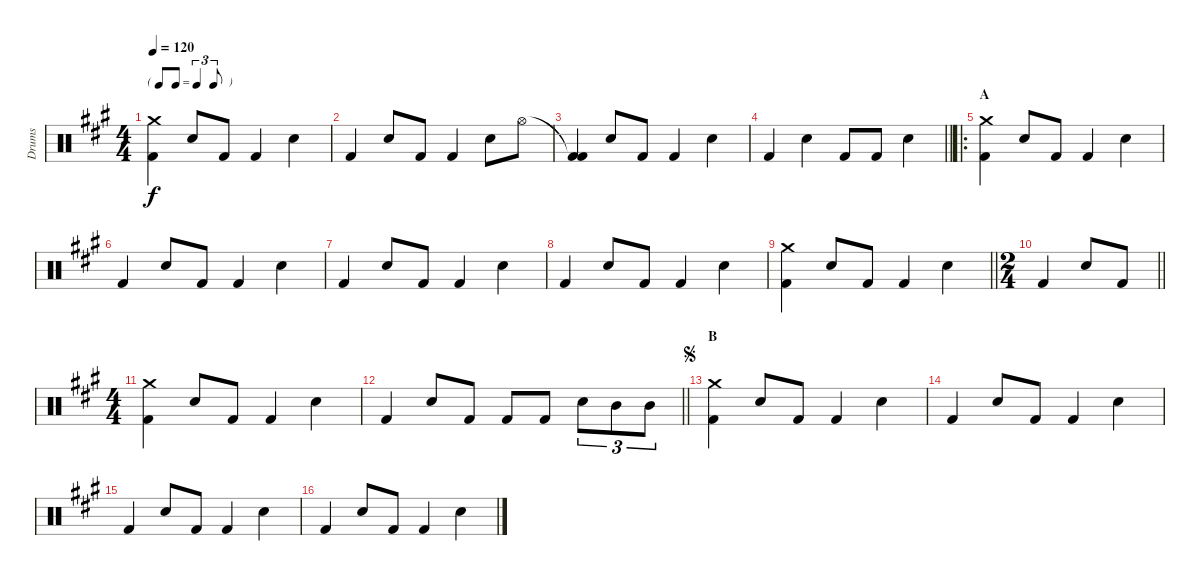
\track ("Drums" "Drums") {instrument percussion}
\staff {score}
\articulation defaults
\ts (4 4)
\tf triplet8th
\tempo 120
\clef neutral
\ks a
("Crash medium (hit)" "Kick (hit) 2").4{dy f} "Snare (hit) 2".8 "Kick (hit) 2".8 "Kick (hit) 2".4 "Snare (hit) 2".4 |
"Kick (hit) 2".4 "Snare (hit) 2".8 "Kick (hit) 2".8 "Kick (hit) 2".4 "Snare (hit) 2".8 "Hi-Hat (open)".8 |
("Kick (hit) 2"{t} "Kick (hit) 2").4 "Snare (hit) 2".8 "Kick (hit) 2".8 "Kick (hit) 2".4 "Snare (hit) 2".4 |
\barLineRight lightlight "Kick (hit) 2".4 "Snare (hit) 2".4 "Kick (hit) 2".8 "Kick (hit) 2".8 "Snare (hit) 2".4
|
\ro
\section ("" "A")
("Crash medium (hit)" "Kick (hit) 2").4 "Snare (hit) 2".8 "Kick (hit) 2".8 "Kick (hit) 2".4 "Snare (hit) 2".4 |
"Kick (hit) 2".4 "Snare (hit) 2".8 "Kick (hit) 2".8 "Kick (hit) 2".4 "Snare (hit) 2".4 |
"Kick (hit) 2".4 "Snare (hit) 2".8 "Kick (hit) 2".8 "Kick (hit) 2".4 "Snare (hit) 2".4 |
"Kick (hit) 2".4 "Snare (hit) 2".8 "Kick (hit) 2".8 "Kick (hit) 2".4 "Snare (hit) 2".4 |
\barLineRight lightlight
("Crash medium (hit)" "Kick (hit) 2").4 "Snare (hit) 2".8 "Kick (hit) 2".8 "Kick (hit) 2".4 "Snare (hit) 2".4 |
\ts (2 4)
\barLineRight lightlight "Kick (hit) 2".4 "Snare (hit) 2".8 "Kick (hit) 2".8
|
\ts (4 4)
("Crash medium (hit)" "Kick (hit) 2").4 "Snare (hit) 2".8 "Kick (hit) 2".8 "Kick (hit) 2".4 "Snare (hit) 2".4 |
\barLineRight lightlight "Kick (hit) 2".4 "Snare (hit) 2".8 "Kick (hit) 2".8 "Kick (hit) 2".8 "Kick (hit) 2".8 "Snare (hit) 2".8{tu (3 2)} "Mid Tom (hit)".8{tu (3 2)} "Mid Tom (hit)".8{tu (3 2)}
|
\section ("" "B")
\jump segno
("Crash medium (hit)" "Kick (hit) 2").4 "Snare (hit) 2".8 "Kick (hit) 2".8 "Kick (hit) 2".4 "Snare (hit) 2".4 |
"Kick (hit) 2".4 "Snare (hit) 2".8 "Kick (hit) 2".8 "Kick (hit) 2".4 "Snare (hit) 2".4 |
"Kick (hit) 2".4 "Snare (hit) 2".8 "Kick (hit) 2".8 "Kick (hit) 2".4 "Snare (hit) 2".4 |
"Kick (hit) 2".4 "Snare (hit) 2".8 "Kick (hit) 2".8 "Kick (hit) 2".4 "Snare (hit) 2".4
